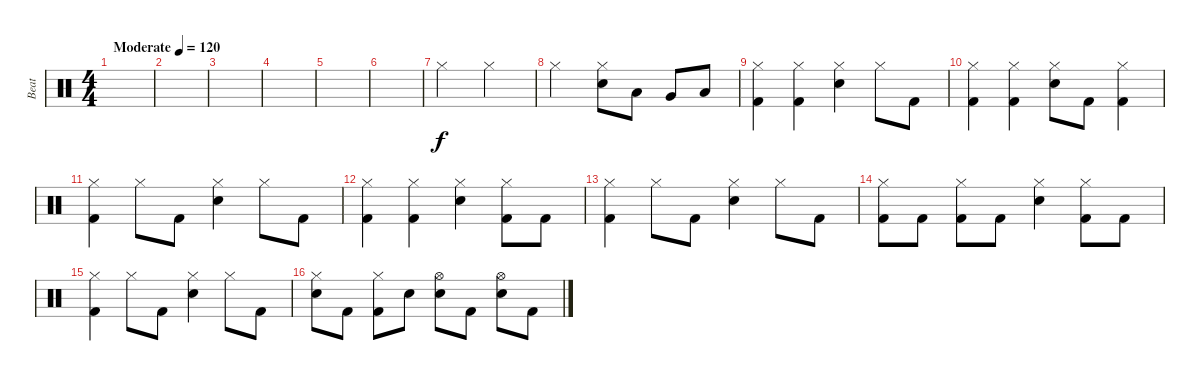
\track ("Beat" "Beat") {instrument percussion}
\staff {score}
\articulation defaults
\ts (4 4)
\tempo (120 "Moderate")
\clef neutral
\ks c
|
|
|
|
|
|
"Hi-Hat (closed)".2 "Hi-Hat (closed)".2 |
"Hi-Hat (closed)".2 ("Hi-Hat (closed)" "Snare (hit) 2").8 "Low Tom (hit)".8 "Very Low Tom (hit)".8 "Low Floor Tom (hit)".8 |
("Hi-Hat (closed)" "Kick (hit) 2").4 ("Hi-Hat (closed)" "Kick (hit) 2").4 ("Hi-Hat (closed)" "Snare (hit) 2").4 "Hi-Hat (closed)".8 "Kick (hit) 2".8 |
("Hi-Hat (closed)" "Kick (hit) 2").4 ("Hi-Hat (closed)" "Kick (hit) 2").4 ("Hi-Hat (closed)" "Snare (hit) 2").8 "Kick (hit) 2".8 ("Hi-Hat (closed)" "Kick (hit) 2").4 |
("Hi-Hat (closed)" "Kick (hit) 2").4 "Hi-Hat (closed)".8 "Kick (hit) 2".8 ("Hi-Hat (closed)" "Snare (hit) 2").4 "Hi-Hat (closed)".8 "Kick (hit) 2".8 |
("Hi-Hat (closed)" "Kick (hit) 2").4 ("Hi-Hat (closed)" "Kick (hit) 2").4 ("Hi-Hat (closed)" "Snare (hit) 2").4 ("Hi-Hat (closed)" "Kick (hit) 2").8 "Kick (hit) 2".8 |
("Hi-Hat (closed)" "Kick (hit) 2").4 "Hi-Hat (closed)".8 "Kick (hit) 2".8 ("Hi-Hat (closed)" "Snare (hit) 2").4 "Hi-Hat (closed)".8 "Kick (hit) 2".8 |
("Hi-Hat (closed)" "Kick (hit) 2").8 "Kick (hit) 2".8 ("Hi-Hat (closed)" "Kick (hit) 2").8 "Kick (hit) 2".8 ("Hi-Hat (closed)" "Snare (hit) 2").4 ("Hi-Hat (closed)" "Kick (hit) 2").8 "Kick (hit) 2".8 |
("Hi-Hat (closed)" "Kick (hit) 2").4 "Hi-Hat (closed)".8 "Kick (hit) 2".8 ("Hi-Hat (closed)" "Snare (hit) 2").4 "Hi-Hat (closed)".8 "Kick (hit) 2".8 |
("Hi-Hat (closed)" "Snare (hit) 2").8 "Kick (hit) 2".8 ("Hi-Hat (closed)" "Kick (hit) 2").8 "Snare (hit) 2".8 ("Hi-Hat (open)" "Snare (hit) 2").8 "Kick (hit) 2".8 ("Hi-Hat (open)" "Snare (hit) 2").8 "Kick (hit) 2".8
